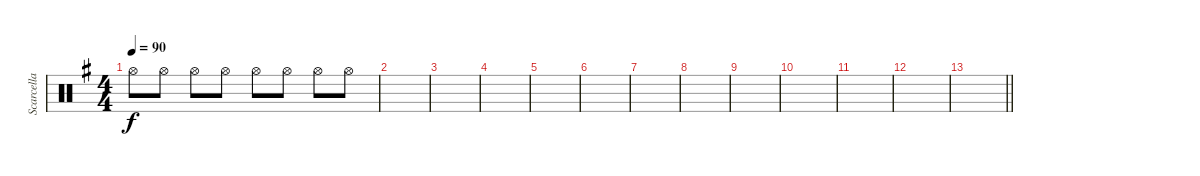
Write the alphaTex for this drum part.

\track ("Scarcella" "Scarcella") {instrument percussion}
\staff {score}
\articulation defaults
\ts (4 4)
\tempo 90
\clef neutral
\ks eminor "Hi-Hat (open)".8{dy f} "Hi-Hat (open)".8 "Hi-Hat (open)".8 "Hi-Hat (open)".8 "Hi-Hat (open)".8 "Hi-Hat (open)".8 "Hi-Hat (open)".8 "Hi-Hat (open)".8
|
|
|
|
|
|
|
|
|
|
|
|
\barLineRight lightlight
